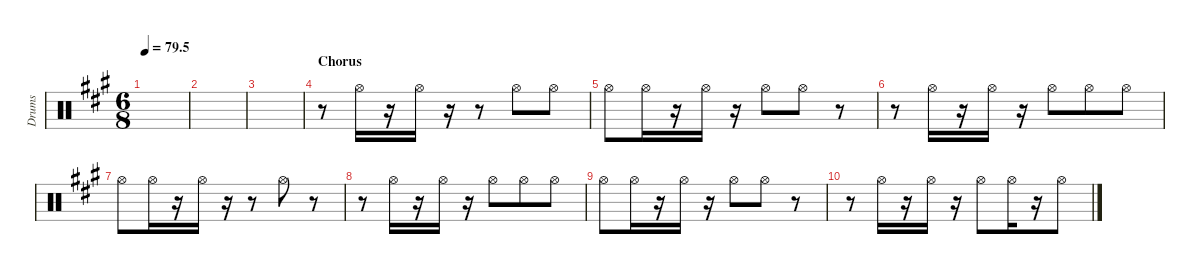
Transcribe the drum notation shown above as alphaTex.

\defaultSystemsLayout 4
\hideDynamics
\bracketExtendMode nobrackets
\otherSystemsTrackNameOrientation horizontal
\track ("Hihat" "Drums") {instrument percussion}
\staff {score}
\articulation defaults
\ts (6 8)
\tempo
79.5
\accidentals auto
\clef neutral
\ottava regular
\simile none
\scale
0.333333
\ks a
|
\scale
0.333333 |
\scale
0.333333 |
\section ("" "Chorus")
\scale
0.333333 r.8 "Hi-Hat (open)"{acc forcenatural}.16 r.16 "Hi-Hat (open)"{acc forcenatural}.16 r.16 r.8 "Hi-Hat (open)"{acc forcenatural}.8 "Hi-Hat (open)"{acc forcenatural}.8 |
\scale
0.333333 "Hi-Hat (open)"{acc forcenatural}.8 "Hi-Hat (open)"{acc forcenatural}.16 r.16 "Hi-Hat (open)"{acc forcenatural}.16 r.16 "Hi-Hat (open)"{acc forcenatural}.8 "Hi-Hat (open)"{acc forcenatural}.8 r.8 |
\scale
0.333333 r.8 "Hi-Hat (open)"{acc forcenatural}.16 r.16 "Hi-Hat (open)"{acc forcenatural}.16 r.16 "Hi-Hat (open)"{acc forcenatural}.8 "Hi-Hat (open)"{acc forcenatural}.8 "Hi-Hat (open)"{acc forcenatural}.8 |
\scale
0.333333 "Hi-Hat (open)"{acc forcenatural}.8 "Hi-Hat (open)"{acc forcenatural}.16 r.16 "Hi-Hat (open)"{acc forcenatural}.16 r.16 r.8 "Hi-Hat (open)"{acc forcenatural}.8 r.8 |
\scale
0.333333 r.8 "Hi-Hat (open)"{acc forcenatural}.16 r.16 "Hi-Hat (open)"{acc forcenatural}.16 r.16 "Hi-Hat (open)"{acc forcenatural}.8 "Hi-Hat (open)"{acc forcenatural}.8 "Hi-Hat (open)"{acc forcenatural}.8 |
\scale
0.333333 "Hi-Hat (open)"{acc forcenatural}.8 "Hi-Hat (open)"{acc forcenatural}.16 r.16 "Hi-Hat (open)"{acc forcenatural}.16 r.16 "Hi-Hat (open)"{acc forcenatural}.8 "Hi-Hat (open)"{acc forcenatural}.8 r.8 |
\scale
0.333333 r.8 "Hi-Hat (open)"{acc forcenatural}.16 r.16 "Hi-Hat (open)"{acc forcenatural}.16 r.16 "Hi-Hat (open)"{acc forcenatural}.8 "Hi-Hat (open)"{acc forcenatural}.16 r.16 "Hi-Hat (open)"{acc forcenatural}.8 |
\scale
0.333333 |
\scale
0.333333 |
\scale
0.333333 |
\scale
0.333333 |
\scale
0.333333 |
\scale
0.333333
